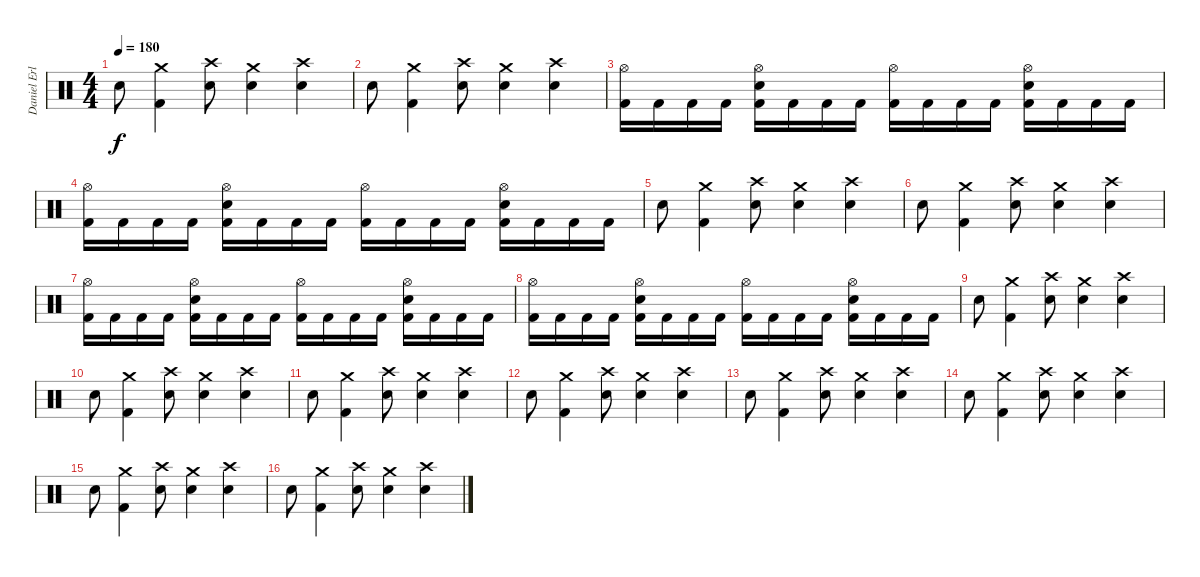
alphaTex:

\track ("Daniel Erlandson" "Daniel Erl") {instrument percussion}
\staff {score}
\articulation defaults
\ts (4 4)
\tempo 180
\clef neutral
\ks c "Electric Snare (hit)".8{dy f}
("Crash medium (hit)" "Kick (hit) 2").4 ("Crash high (hit)" "Electric Snare (hit)").8 ("Crash medium (hit)" "Electric Snare (hit)").4 ("Crash high (hit)" "Electric Snare (hit)").4 |
"Electric Snare (hit)".8 ("Crash medium (hit)" "Kick (hit) 2").4 ("Crash high (hit)" "Electric Snare (hit)").8 ("Crash medium (hit)" "Electric Snare (hit)").4 ("Crash high (hit)" "Electric Snare (hit)").4 |
("Hi-Hat (open)" "Kick (hit) 2").16 "Kick (hit) 2".16 "Kick (hit) 2".16 "Kick (hit) 2".16 ("Hi-Hat (open)" "Electric Snare (hit)" "Kick (hit) 2").16 "Kick (hit) 2".16 "Kick (hit) 2".16 "Kick (hit) 2".16 ("Hi-Hat (open)" "Kick (hit) 2").16 "Kick (hit) 2".16 "Kick (hit) 2".16 "Kick (hit) 2".16 ("Hi-Hat (open)" "Electric Snare (hit)" "Kick (hit) 2").16 "Kick (hit) 2".16 "Kick (hit) 2".16 "Kick (hit) 2".16 |
("Hi-Hat (open)" "Kick (hit) 2").16 "Kick (hit) 2".16 "Kick (hit) 2".16 "Kick (hit) 2".16 ("Hi-Hat (open)" "Electric Snare (hit)" "Kick (hit) 2").16 "Kick (hit) 2".16 "Kick (hit) 2".16 "Kick (hit) 2".16 ("Hi-Hat (open)" "Kick (hit) 2").16 "Kick (hit) 2".16 "Kick (hit) 2".16 "Kick (hit) 2".16 ("Hi-Hat (open)" "Electric Snare (hit)" "Kick (hit) 2").16 "Kick (hit) 2".16 "Kick (hit) 2".16 "Kick (hit) 2".16 |
"Electric Snare (hit)".8 ("Crash medium (hit)" "Kick (hit) 2").4 ("Crash high (hit)" "Electric Snare (hit)").8 ("Crash medium (hit)" "Electric Snare (hit)").4 ("Crash high (hit)" "Electric Snare (hit)").4 |
"Electric Snare (hit)".8 ("Crash medium (hit)" "Kick (hit) 2").4 ("Crash high (hit)" "Electric Snare (hit)").8 ("Crash medium (hit)" "Electric Snare (hit)").4 ("Crash high (hit)" "Electric Snare (hit)").4 |
("Hi-Hat (open)" "Kick (hit) 2").16 "Kick (hit) 2".16 "Kick (hit) 2".16 "Kick (hit) 2".16 ("Hi-Hat (open)" "Electric Snare (hit)" "Kick (hit) 2").16 "Kick (hit) 2".16 "Kick (hit) 2".16 "Kick (hit) 2".16 ("Hi-Hat (open)" "Kick (hit) 2").16 "Kick (hit) 2".16 "Kick (hit) 2".16 "Kick (hit) 2".16 ("Hi-Hat (open)" "Electric Snare (hit)" "Kick (hit) 2").16 "Kick (hit) 2".16 "Kick (hit) 2".16 "Kick (hit) 2".16 |
("Hi-Hat (open)" "Kick (hit) 2").16 "Kick (hit) 2".16 "Kick (hit) 2".16 "Kick (hit) 2".16 ("Hi-Hat (open)" "Electric Snare (hit)" "Kick (hit) 2").16 "Kick (hit) 2".16 "Kick (hit) 2".16 "Kick (hit) 2".16 ("Hi-Hat (open)" "Kick (hit) 2").16 "Kick (hit) 2".16 "Kick (hit) 2".16 "Kick (hit) 2".16 ("Hi-Hat (open)" "Electric Snare (hit)" "Kick (hit) 2").16 "Kick (hit) 2".16 "Kick (hit) 2".16 "Kick (hit) 2".16 |
"Electric Snare (hit)".8 ("Crash medium (hit)" "Kick (hit) 2").4 ("Crash high (hit)" "Electric Snare (hit)").8 ("Crash medium (hit)" "Electric Snare (hit)").4 ("Crash high (hit)" "Electric Snare (hit)").4 |
"Electric Snare (hit)".8 ("Crash medium (hit)" "Kick (hit) 2").4 ("Crash high (hit)" "Electric Snare (hit)").8 ("Crash medium (hit)" "Electric Snare (hit)").4 ("Crash high (hit)" "Electric Snare (hit)").4 |
"Electric Snare (hit)".8 ("Crash medium (hit)" "Kick (hit) 2").4 ("Crash high (hit)" "Electric Snare (hit)").8 ("Crash medium (hit)" "Electric Snare (hit)").4 ("Crash high (hit)" "Electric Snare (hit)").4 |
"Electric Snare (hit)".8 ("Crash medium (hit)" "Kick (hit) 2").4 ("Crash high (hit)" "Electric Snare (hit)").8 ("Crash medium (hit)" "Electric Snare (hit)").4 ("Crash high (hit)" "Electric Snare (hit)").4 |
"Electric Snare (hit)".8 ("Crash medium (hit)" "Kick (hit) 2").4 ("Crash high (hit)" "Electric Snare (hit)").8 ("Crash medium (hit)" "Electric Snare (hit)").4 ("Crash high (hit)" "Electric Snare (hit)").4 |
"Electric Snare (hit)".8 ("Crash medium (hit)" "Kick (hit) 2").4 ("Crash high (hit)" "Electric Snare (hit)").8 ("Crash medium (hit)" "Electric Snare (hit)").4 ("Crash high (hit)" "Electric Snare (hit)").4 |
"Electric Snare (hit)".8 ("Crash medium (hit)" "Kick (hit) 2").4 ("Crash high (hit)" "Electric Snare (hit)").8 ("Crash medium (hit)" "Electric Snare (hit)").4 ("Crash high (hit)" "Electric Snare (hit)").4 |
"Electric Snare (hit)".8 ("Crash medium (hit)" "Kick (hit) 2").4 ("Crash high (hit)" "Electric Snare (hit)").8 ("Crash medium (hit)" "Electric Snare (hit)").4 ("Crash high (hit)" "Electric Snare (hit)").4
